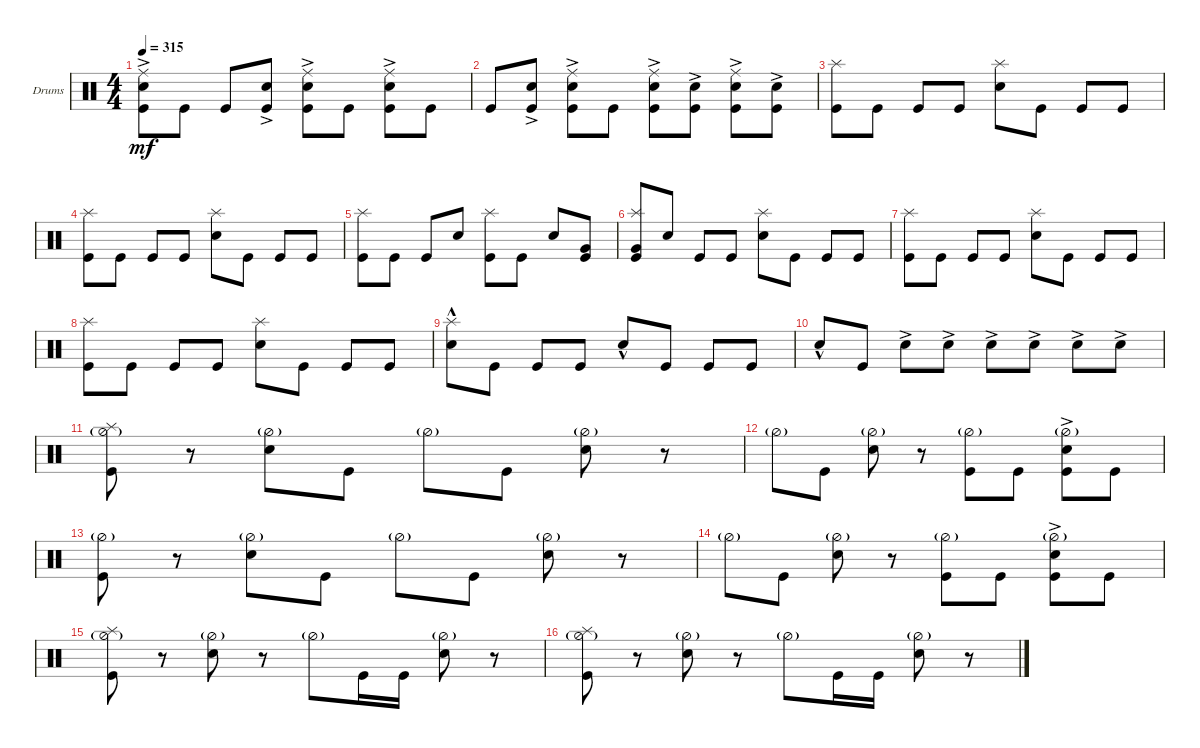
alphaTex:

\bracketExtendMode groupsimilarinstruments
\firstSystemTrackNameOrientation horizontal
\otherSystemsTrackNameOrientation horizontal
\track ("Drumkit" "Drums") {instrument percussion}
\staff {score}
\articulation defaults
\ts (4 4)
\tempo 315
\clef neutral
\ks c
("Snare (hit) 2"{ac} "Kick (hit)" "Ride (middle)").8{dy mf} "Kick (hit)".8 "Kick (hit)".8 ("Snare (hit) 2"{ac} "Kick (hit)").8 ("Snare (hit) 2"{ac} "Kick (hit)" "Ride (middle)").8 "Kick (hit)".8 ("Snare (hit) 2"{ac} "Kick (hit)" "Ride (middle)").8 "Kick (hit)".8 |
"Kick (hit)".8 ("Snare (hit) 2"{ac} "Kick (hit)").8 ("Snare (hit) 2"{ac} "Kick (hit)" "Ride (middle)").8 "Kick (hit)".8 ("Snare (hit) 2"{ac} "Kick (hit)" "Ride (middle)").8 ("Kick (hit)" "Snare (hit) 2"{ac}).8 ("Snare (hit) 2"{ac} "Kick (hit)" "Ride (middle)").8 ("Kick (hit)" "Snare (hit) 2"{ac}).8 |
("Kick (hit)" "Splash (hit)").8 "Kick (hit)".8 "Kick (hit)".8 "Kick (hit)".8 ("Snare (hit) 2" "Splash (hit)").8 "Kick (hit)".8 "Kick (hit)".8 "Kick (hit)".8 |
("Kick (hit)" "Splash (hit)").8 "Kick (hit)".8 "Kick (hit)".8 "Kick (hit)".8 ("Snare (hit) 2" "Splash (hit)").8 "Kick (hit)".8 "Kick (hit)".8 "Kick (hit)".8 |
("Kick (hit)" "Splash (hit)").8 "Kick (hit)".8 "Kick (hit)".8 "Snare (hit) 2".8 ("Kick (hit)" "Splash (hit)").8 "Kick (hit)".8 "Snare (hit) 2".8 ("Very Low Tom (hit)" "Kick (hit)").8 |
("Very Low Tom (hit)" "Kick (hit)" "Splash (hit)").8 "Snare (hit) 2".8 "Kick (hit)".8 "Kick (hit)".8 ("Snare (hit) 2" "Splash (hit)").8 "Kick (hit)".8 "Kick (hit)".8 "Kick (hit)".8 |
("Kick (hit)" "Splash (hit)").8 "Kick (hit)".8 "Kick (hit)".8 "Kick (hit)".8 ("Snare (hit) 2" "Splash (hit)").8 "Kick (hit)".8 "Kick (hit)".8 "Kick (hit)".8 |
("Kick (hit)" "Splash (hit)").8 "Kick (hit)".8 "Kick (hit)".8 "Kick (hit)".8 ("Snare (hit) 2" "Splash (hit)").8 "Kick (hit)".8 "Kick (hit)".8 "Kick (hit)".8 |
("Snare (hit) 2"{hac} "Splash (hit)").8 "Kick (hit)".8 "Kick (hit)".8 "Kick (hit)".8 "Snare (hit) 2"{hac}.8 "Kick (hit)".8 "Kick (hit)".8 "Kick (hit)".8 |
"Snare (hit) 2"{hac}.8 "Kick (hit)".8 "Snare (hit) 2"{ac}.8 "Snare (hit) 2"{ac}.8 "Snare (hit) 2"{ac}.8 "Snare (hit) 2"{ac}.8 "Snare (hit) 2"{ac}.8 "Snare (hit) 2"{ac}.8 |
("Kick (hit)" "Hi-Hat (half)"{g} "Splash (hit)").8 r.8 ("Snare (hit) 2" "Hi-Hat (half)"{g}).8 "Kick (hit)".8 "Hi-Hat (half)"{g}.8 "Kick (hit)".8 ("Snare (hit) 2" "Hi-Hat (half)"{g}).8 r.8 |
"Hi-Hat (half)"{g}.8 "Kick (hit)".8 ("Snare (hit) 2" "Hi-Hat (half)"{g}).8 r.8 ("Kick (hit)" "Hi-Hat (half)"{g}).8 "Kick (hit)".8 ("Snare (hit) 2"{ac} "Kick (hit)" "Hi-Hat (half)"{g}).8 "Kick (hit)".8 |
("Kick (hit)" "Hi-Hat (half)"{g}).8 r.8 ("Snare (hit) 2" "Hi-Hat (half)"{g}).8 "Kick (hit)".8 "Hi-Hat (half)"{g}.8 "Kick (hit)".8 ("Snare (hit) 2" "Hi-Hat (half)"{g}).8 r.8 |
"Hi-Hat (half)"{g}.8 "Kick (hit)".8 ("Snare (hit) 2" "Hi-Hat (half)"{g}).8 r.8 ("Kick (hit)" "Hi-Hat (half)"{g}).8 "Kick (hit)".8 ("Snare (hit) 2"{ac} "Kick (hit)" "Hi-Hat (half)"{g}).8 "Kick (hit)".8 |
("Kick (hit)" "Splash (hit)" "Hi-Hat (half)"{g}).8 r.8 ("Snare (hit) 2" "Hi-Hat (half)"{g}).8 r.8 "Hi-Hat (half)"{g}.8 "Kick (hit)".16 "Kick (hit)".16 ("Snare (hit) 2" "Hi-Hat (half)"{g}).8 r.8 |
("Kick (hit)" "Splash (hit)" "Hi-Hat (half)"{g}).8 r.8 ("Snare (hit) 2" "Hi-Hat (half)"{g}).8 r.8 "Hi-Hat (half)"{g}.8 "Kick (hit)".16 "Kick (hit)".16 ("Snare (hit) 2" "Hi-Hat (half)"{g}).8 r.8
